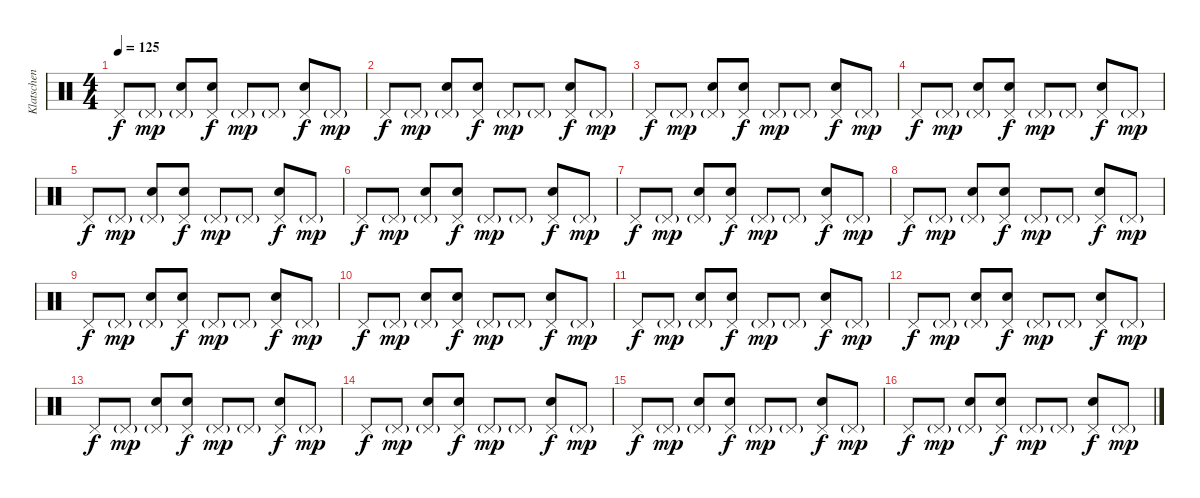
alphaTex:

\track ("Klatschen" "Klatschen") {instrument percussion}
\staff {score}
\articulation defaults
\ts (4 4)
\tempo 125
\clef neutral
\ks c "Pedal Hi-Hat (hit)".8{dy f} "Pedal Hi-Hat (hit)"{g}.8{dy mp}
("Pedal Hi-Hat (hit)"{g} "Hand Clap (hit)").8 ("Pedal Hi-Hat (hit)" "Hand Clap (hit)").8{dy f} "Pedal Hi-Hat (hit)"{g}.8{dy mp} "Pedal Hi-Hat (hit)"{g}.8 ("Pedal Hi-Hat (hit)" "Hand Clap (hit)").8{dy f} "Pedal Hi-Hat (hit)"{g}.8{dy mp} |
"Pedal Hi-Hat (hit)".8{dy f} "Pedal Hi-Hat (hit)"{g}.8{dy mp} ("Pedal Hi-Hat (hit)"{g} "Hand Clap (hit)").8 ("Pedal Hi-Hat (hit)" "Hand Clap (hit)").8{dy f} "Pedal Hi-Hat (hit)"{g}.8{dy mp} "Pedal Hi-Hat (hit)"{g}.8 ("Pedal Hi-Hat (hit)" "Hand Clap (hit)").8{dy f} "Pedal Hi-Hat (hit)"{g}.8{dy mp} |
"Pedal Hi-Hat (hit)".8{dy f} "Pedal Hi-Hat (hit)"{g}.8{dy mp} ("Pedal Hi-Hat (hit)"{g} "Hand Clap (hit)").8 ("Pedal Hi-Hat (hit)" "Hand Clap (hit)").8{dy f} "Pedal Hi-Hat (hit)"{g}.8{dy mp} "Pedal Hi-Hat (hit)"{g}.8 ("Pedal Hi-Hat (hit)" "Hand Clap (hit)").8{dy f} "Pedal Hi-Hat (hit)"{g}.8{dy mp} |
"Pedal Hi-Hat (hit)".8{dy f} "Pedal Hi-Hat (hit)"{g}.8{dy mp} ("Pedal Hi-Hat (hit)"{g} "Hand Clap (hit)").8 ("Pedal Hi-Hat (hit)" "Hand Clap (hit)").8{dy f} "Pedal Hi-Hat (hit)"{g}.8{dy mp} "Pedal Hi-Hat (hit)"{g}.8 ("Pedal Hi-Hat (hit)" "Hand Clap (hit)").8{dy f} "Pedal Hi-Hat (hit)"{g}.8{dy mp} |
"Pedal Hi-Hat (hit)".8{dy f} "Pedal Hi-Hat (hit)"{g}.8{dy mp} ("Pedal Hi-Hat (hit)"{g} "Hand Clap (hit)").8 ("Pedal Hi-Hat (hit)" "Hand Clap (hit)").8{dy f} "Pedal Hi-Hat (hit)"{g}.8{dy mp} "Pedal Hi-Hat (hit)"{g}.8 ("Pedal Hi-Hat (hit)" "Hand Clap (hit)").8{dy f} "Pedal Hi-Hat (hit)"{g}.8{dy mp} |
"Pedal Hi-Hat (hit)".8{dy f} "Pedal Hi-Hat (hit)"{g}.8{dy mp} ("Pedal Hi-Hat (hit)"{g} "Hand Clap (hit)").8 ("Pedal Hi-Hat (hit)" "Hand Clap (hit)").8{dy f} "Pedal Hi-Hat (hit)"{g}.8{dy mp} "Pedal Hi-Hat (hit)"{g}.8 ("Pedal Hi-Hat (hit)" "Hand Clap (hit)").8{dy f} "Pedal Hi-Hat (hit)"{g}.8{dy mp} |
"Pedal Hi-Hat (hit)".8{dy f} "Pedal Hi-Hat (hit)"{g}.8{dy mp} ("Pedal Hi-Hat (hit)"{g} "Hand Clap (hit)").8 ("Pedal Hi-Hat (hit)" "Hand Clap (hit)").8{dy f} "Pedal Hi-Hat (hit)"{g}.8{dy mp} "Pedal Hi-Hat (hit)"{g}.8 ("Pedal Hi-Hat (hit)" "Hand Clap (hit)").8{dy f} "Pedal Hi-Hat (hit)"{g}.8{dy mp} |
"Pedal Hi-Hat (hit)".8{dy f} "Pedal Hi-Hat (hit)"{g}.8{dy mp} ("Pedal Hi-Hat (hit)"{g} "Hand Clap (hit)").8 ("Pedal Hi-Hat (hit)" "Hand Clap (hit)").8{dy f} "Pedal Hi-Hat (hit)"{g}.8{dy mp} "Pedal Hi-Hat (hit)"{g}.8 ("Pedal Hi-Hat (hit)" "Hand Clap (hit)").8{dy f} "Pedal Hi-Hat (hit)"{g}.8{dy mp} |
"Pedal Hi-Hat (hit)".8{dy f} "Pedal Hi-Hat (hit)"{g}.8{dy mp} ("Pedal Hi-Hat (hit)"{g} "Hand Clap (hit)").8 ("Pedal Hi-Hat (hit)" "Hand Clap (hit)").8{dy f} "Pedal Hi-Hat (hit)"{g}.8{dy mp} "Pedal Hi-Hat (hit)"{g}.8 ("Pedal Hi-Hat (hit)" "Hand Clap (hit)").8{dy f} "Pedal Hi-Hat (hit)"{g}.8{dy mp} |
"Pedal Hi-Hat (hit)".8{dy f} "Pedal Hi-Hat (hit)"{g}.8{dy mp} ("Pedal Hi-Hat (hit)"{g} "Hand Clap (hit)").8 ("Pedal Hi-Hat (hit)" "Hand Clap (hit)").8{dy f} "Pedal Hi-Hat (hit)"{g}.8{dy mp} "Pedal Hi-Hat (hit)"{g}.8 ("Pedal Hi-Hat (hit)" "Hand Clap (hit)").8{dy f} "Pedal Hi-Hat (hit)"{g}.8{dy mp} |
"Pedal Hi-Hat (hit)".8{dy f} "Pedal Hi-Hat (hit)"{g}.8{dy mp} ("Pedal Hi-Hat (hit)"{g} "Hand Clap (hit)").8 ("Pedal Hi-Hat (hit)" "Hand Clap (hit)").8{dy f} "Pedal Hi-Hat (hit)"{g}.8{dy mp} "Pedal Hi-Hat (hit)"{g}.8 ("Pedal Hi-Hat (hit)" "Hand Clap (hit)").8{dy f} "Pedal Hi-Hat (hit)"{g}.8{dy mp} |
"Pedal Hi-Hat (hit)".8{dy f} "Pedal Hi-Hat (hit)"{g}.8{dy mp} ("Pedal Hi-Hat (hit)"{g} "Hand Clap (hit)").8 ("Pedal Hi-Hat (hit)" "Hand Clap (hit)").8{dy f} "Pedal Hi-Hat (hit)"{g}.8{dy mp} "Pedal Hi-Hat (hit)"{g}.8 ("Pedal Hi-Hat (hit)" "Hand Clap (hit)").8{dy f} "Pedal Hi-Hat (hit)"{g}.8{dy mp} |
"Pedal Hi-Hat (hit)".8{dy f} "Pedal Hi-Hat (hit)"{g}.8{dy mp} ("Pedal Hi-Hat (hit)"{g} "Hand Clap (hit)").8 ("Pedal Hi-Hat (hit)" "Hand Clap (hit)").8{dy f} "Pedal Hi-Hat (hit)"{g}.8{dy mp} "Pedal Hi-Hat (hit)"{g}.8 ("Pedal Hi-Hat (hit)" "Hand Clap (hit)").8{dy f} "Pedal Hi-Hat (hit)"{g}.8{dy mp} |
"Pedal Hi-Hat (hit)".8{dy f} "Pedal Hi-Hat (hit)"{g}.8{dy mp} ("Pedal Hi-Hat (hit)"{g} "Hand Clap (hit)").8 ("Pedal Hi-Hat (hit)" "Hand Clap (hit)").8{dy f} "Pedal Hi-Hat (hit)"{g}.8{dy mp} "Pedal Hi-Hat (hit)"{g}.8 ("Pedal Hi-Hat (hit)" "Hand Clap (hit)").8{dy f} "Pedal Hi-Hat (hit)"{g}.8{dy mp} |
"Pedal Hi-Hat (hit)".8{dy f} "Pedal Hi-Hat (hit)"{g}.8{dy mp} ("Pedal Hi-Hat (hit)"{g} "Hand Clap (hit)").8 ("Pedal Hi-Hat (hit)" "Hand Clap (hit)").8{dy f} "Pedal Hi-Hat (hit)"{g}.8{dy mp} "Pedal Hi-Hat (hit)"{g}.8 ("Pedal Hi-Hat (hit)" "Hand Clap (hit)").8{dy f} "Pedal Hi-Hat (hit)"{g}.8{dy mp} |
"Pedal Hi-Hat (hit)".8{dy f} "Pedal Hi-Hat (hit)"{g}.8{dy mp} ("Pedal Hi-Hat (hit)"{g} "Hand Clap (hit)").8 ("Pedal Hi-Hat (hit)" "Hand Clap (hit)").8{dy f} "Pedal Hi-Hat (hit)"{g}.8{dy mp} "Pedal Hi-Hat (hit)"{g}.8 ("Pedal Hi-Hat (hit)" "Hand Clap (hit)").8{dy f} "Pedal Hi-Hat (hit)"{g}.8{dy mp}
